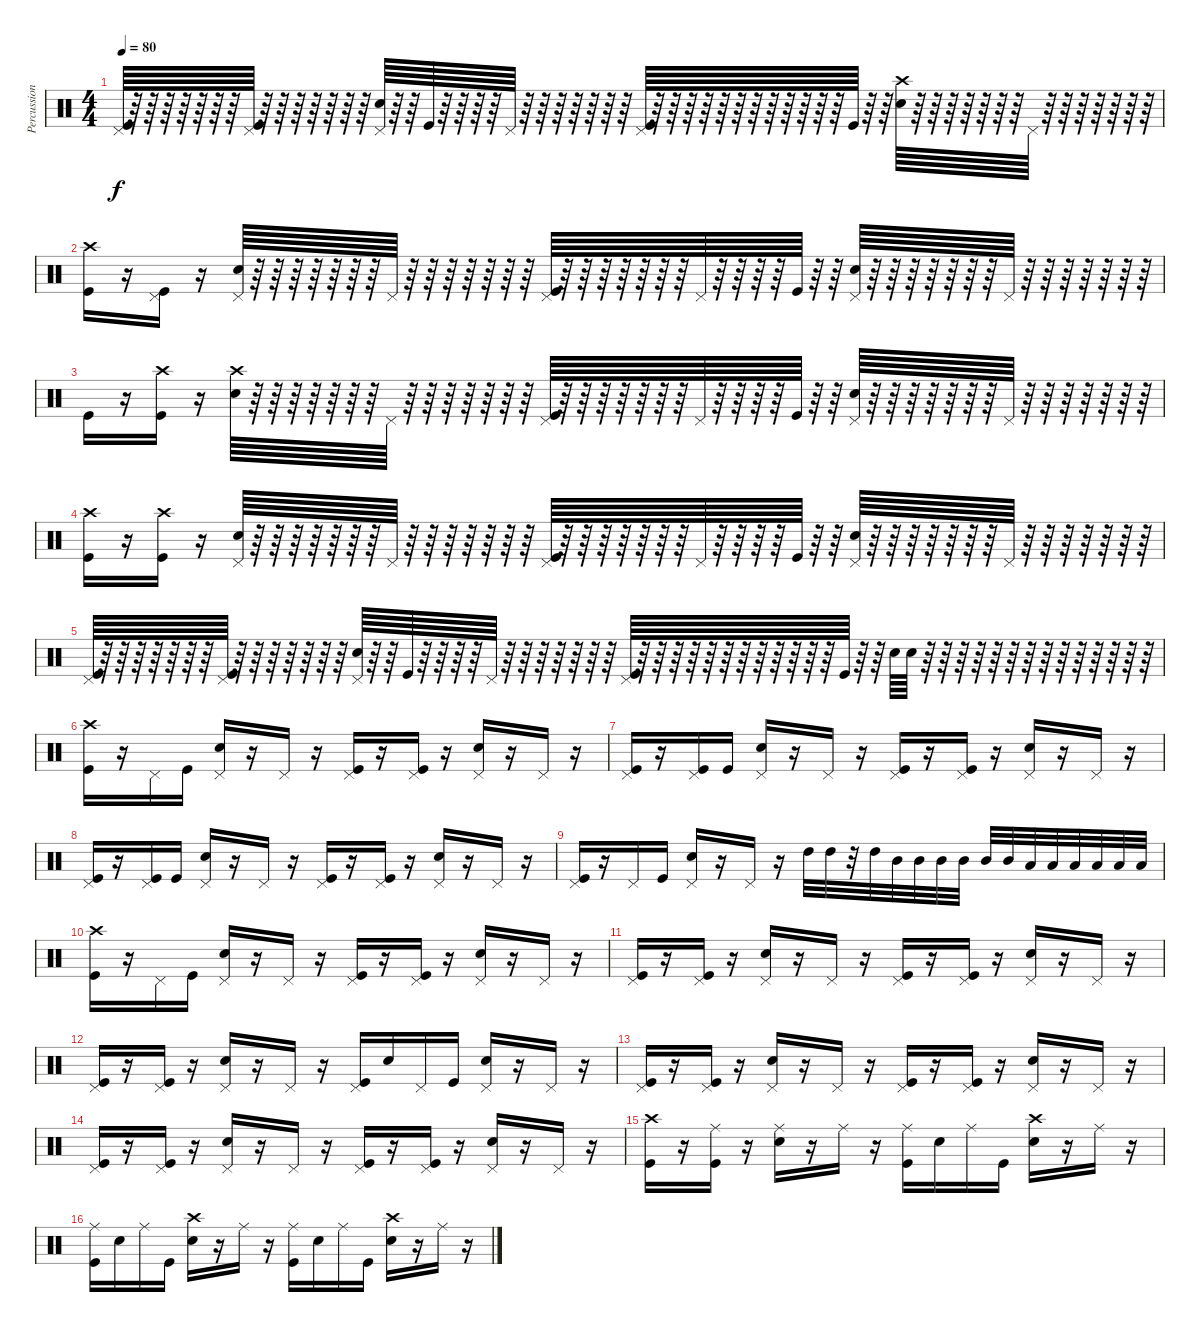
\track ("Percussion" "Percussion") {instrument percussion}
\staff {score}
\articulation defaults
\ts (4 4)
\tempo 80
\clef neutral
\ks c
("Pedal Hi-Hat (hit)" "Kick (hit)").64{dy f} r.64 r.64 r.64 r.64 r.64 r.64 r.64 ("Pedal Hi-Hat (hit)" "Kick (hit)").64 r.64 r.64 r.64 r.64 r.64 r.64 r.64 ("Snare (hit) 2" "Pedal Hi-Hat (hit)").64 r.64 r.64 "Kick (hit)".64 r.64 r.64 r.64 r.64 "Pedal Hi-Hat (hit)".64 r.64 r.64 r.64 r.64 r.64 r.64 r.64 ("Pedal Hi-Hat (hit)" "Kick (hit)").64 r.64 r.64 r.64 r.64 r.64 r.64 r.64 r.64 r.64 r.64 r.64 r.64 "Kick (hit)".64 r.64 r.64 ("Snare (hit) 2" "Crash high (hit)").64 r.64 r.64 r.64 r.64 r.64 r.64 r.64 "Pedal Hi-Hat (hit)".64 r.64 r.64 r.64 r.64 r.64 r.64 r.64 |
("Crash high (hit)" "Kick (hit)").16 r.16 ("Pedal Hi-Hat (hit)" "Kick (hit)").16 r.16 ("Snare (hit) 2" "Pedal Hi-Hat (hit)").64 r.64 r.64 r.64 r.64 r.64 r.64 r.64 "Pedal Hi-Hat (hit)".64 r.64 r.64 r.64 r.64 r.64 r.64 r.64 ("Pedal Hi-Hat (hit)" "Kick (hit)").64 r.64 r.64 r.64 r.64 r.64 r.64 r.64 "Pedal Hi-Hat (hit)".64 r.64 r.64 r.64 r.64 "Kick (hit)".64 r.64 r.64 ("Snare (hit) 2" "Pedal Hi-Hat (hit)").64 r.64 r.64 r.64 r.64 r.64 r.64 r.64 "Pedal Hi-Hat (hit)".64 r.64 r.64 r.64 r.64 r.64 r.64 r.64 |
"Kick (hit)".16 r.16 ("Crash high (hit)" "Kick (hit)").16 r.16 ("Snare (hit) 2" "Crash high (hit)").64 r.64 r.64 r.64 r.64 r.64 r.64 r.64 "Pedal Hi-Hat (hit)".64 r.64 r.64 r.64 r.64 r.64 r.64 r.64 ("Pedal Hi-Hat (hit)" "Kick (hit)").64 r.64 r.64 r.64 r.64 r.64 r.64 r.64 "Pedal Hi-Hat (hit)".64 r.64 r.64 r.64 r.64 "Kick (hit)".64 r.64 r.64 ("Snare (hit) 2" "Pedal Hi-Hat (hit)").64 r.64 r.64 r.64 r.64 r.64 r.64 r.64 "Pedal Hi-Hat (hit)".64 r.64 r.64 r.64 r.64 r.64 r.64 r.64 |
("Crash high (hit)" "Kick (hit)").16 r.16 ("Crash high (hit)" "Kick (hit)").16 r.16 ("Snare (hit) 2" "Pedal Hi-Hat (hit)").64 r.64 r.64 r.64 r.64 r.64 r.64 r.64 "Pedal Hi-Hat (hit)".64 r.64 r.64 r.64 r.64 r.64 r.64 r.64 ("Pedal Hi-Hat (hit)" "Kick (hit)").64 r.64 r.64 r.64 r.64 r.64 r.64 r.64 "Pedal Hi-Hat (hit)".64 r.64 r.64 r.64 r.64 "Kick (hit)".64 r.64 r.64 ("Snare (hit) 2" "Pedal Hi-Hat (hit)").64 r.64 r.64 r.64 r.64 r.64 r.64 r.64 "Pedal Hi-Hat (hit)".64 r.64 r.64 r.64 r.64 r.64 r.64 r.64 |
("Pedal Hi-Hat (hit)" "Kick (hit)").64 r.64 r.64 r.64 r.64 r.64 r.64 r.64 ("Pedal Hi-Hat (hit)" "Kick (hit)").64 r.64 r.64 r.64 r.64 r.64 r.64 r.64 ("Snare (hit) 2" "Pedal Hi-Hat (hit)").64 r.64 r.64 "Kick (hit)".64 r.64 r.64 r.64 r.64 "Pedal Hi-Hat (hit)".64 r.64 r.64 r.64 r.64 r.64 r.64 r.64 ("Pedal Hi-Hat (hit)" "Kick (hit)").64 r.64 r.64 r.64 r.64 r.64 r.64 r.64 r.64 r.64 r.64 r.64 r.64 "Kick (hit)".64 r.64 r.64 "Snare (hit) 2".64 "Snare (hit) 2".64 r.64 r.64 r.64 r.64 r.64 r.64 r.64 r.64 r.64 r.64 r.64 r.64 r.64 r.64 |
("Crash high (hit)" "Kick (hit)").16 r.16 "Pedal Hi-Hat (hit)".16 "Kick (hit)".16 ("Snare (hit) 2" "Pedal Hi-Hat (hit)").16 r.16 "Pedal Hi-Hat (hit)".16 r.16 ("Pedal Hi-Hat (hit)" "Kick (hit)").16 r.16 ("Pedal Hi-Hat (hit)" "Kick (hit)").16 r.16 ("Snare (hit) 2" "Pedal Hi-Hat (hit)").16 r.16 "Pedal Hi-Hat (hit)".16 r.16 |
("Pedal Hi-Hat (hit)" "Kick (hit)").16 r.16 ("Pedal Hi-Hat (hit)" "Kick (hit)").16 "Kick (hit)".16 ("Snare (hit) 2" "Pedal Hi-Hat (hit)").16 r.16 "Pedal Hi-Hat (hit)".16 r.16 ("Pedal Hi-Hat (hit)" "Kick (hit)").16 r.16 ("Pedal Hi-Hat (hit)" "Kick (hit)").16 r.16 ("Snare (hit) 2" "Pedal Hi-Hat (hit)").16 r.16 "Pedal Hi-Hat (hit)".16 r.16 |
("Pedal Hi-Hat (hit)" "Kick (hit)").16 r.16 ("Pedal Hi-Hat (hit)" "Kick (hit)").16 "Kick (hit)".16 ("Snare (hit) 2" "Pedal Hi-Hat (hit)").16 r.16 "Pedal Hi-Hat (hit)".16 r.16 ("Pedal Hi-Hat (hit)" "Kick (hit)").16 r.16 ("Pedal Hi-Hat (hit)" "Kick (hit)").16 r.16 ("Snare (hit) 2" "Pedal Hi-Hat (hit)").16 r.16 "Pedal Hi-Hat (hit)".16 r.16 |
("Pedal Hi-Hat (hit)" "Kick (hit)").16 r.16 "Pedal Hi-Hat (hit)".16 "Kick (hit)".16 ("Snare (hit) 2" "Pedal Hi-Hat (hit)").16 r.16 "Pedal Hi-Hat (hit)".16 r.16 "High Tom (hit)".32 "High Tom (hit)".32 r.32 "High Tom (hit)".32 "Mid Tom (hit)".32 "Mid Tom (hit)".32 "Mid Tom (hit)".32 "Mid Tom (hit)".32 "Mid Tom (hit)".32 "Mid Tom (hit)".32 "Low Tom (hit)".32 "Low Tom (hit)".32 "Low Tom (hit)".32 "Low Tom (hit)".32 "Low Tom (hit)".32 "Low Tom (hit)".32 |
("Crash high (hit)" "Kick (hit)").16 r.16 "Pedal Hi-Hat (hit)".16 "Kick (hit)".16 ("Snare (hit) 2" "Pedal Hi-Hat (hit)").16 r.16 "Pedal Hi-Hat (hit)".16 r.16 ("Pedal Hi-Hat (hit)" "Kick (hit)").16 r.16 ("Pedal Hi-Hat (hit)" "Kick (hit)").16 r.16 ("Snare (hit) 2" "Pedal Hi-Hat (hit)").16 r.16 "Pedal Hi-Hat (hit)".16 r.16 |
("Pedal Hi-Hat (hit)" "Kick (hit)").16 r.16 ("Pedal Hi-Hat (hit)" "Kick (hit)").16 r.16 ("Snare (hit) 2" "Pedal Hi-Hat (hit)").16 r.16 "Pedal Hi-Hat (hit)".16 r.16 ("Pedal Hi-Hat (hit)" "Kick (hit)").16 r.16 ("Pedal Hi-Hat (hit)" "Kick (hit)").16 r.16 ("Snare (hit) 2" "Pedal Hi-Hat (hit)").16 r.16 "Pedal Hi-Hat (hit)".16 r.16 |
("Pedal Hi-Hat (hit)" "Kick (hit)").16 r.16 ("Pedal Hi-Hat (hit)" "Kick (hit)").16 r.16 ("Snare (hit) 2" "Pedal Hi-Hat (hit)").16 r.16 "Pedal Hi-Hat (hit)".16 r.16 ("Pedal Hi-Hat (hit)" "Kick (hit)").16 "Snare (hit) 2".16 "Pedal Hi-Hat (hit)".16 "Kick (hit)".16 ("Snare (hit) 2" "Pedal Hi-Hat (hit)").16 r.16 "Pedal Hi-Hat (hit)".16 r.16 |
("Pedal Hi-Hat (hit)" "Kick (hit)").16 r.16 ("Pedal Hi-Hat (hit)" "Kick (hit)").16 r.16 ("Snare (hit) 2" "Pedal Hi-Hat (hit)").16 r.16 "Pedal Hi-Hat (hit)".16 r.16 ("Pedal Hi-Hat (hit)" "Kick (hit)").16 r.16 ("Pedal Hi-Hat (hit)" "Kick (hit)").16 r.16 ("Snare (hit) 2" "Pedal Hi-Hat (hit)").16 r.16 "Pedal Hi-Hat (hit)".16 r.16 |
("Pedal Hi-Hat (hit)" "Kick (hit)").16 r.16 ("Pedal Hi-Hat (hit)" "Kick (hit)").16 r.16 ("Snare (hit) 2" "Pedal Hi-Hat (hit)").16 r.16 "Pedal Hi-Hat (hit)".16 r.16 ("Pedal Hi-Hat (hit)" "Kick (hit)").16 r.16 ("Pedal Hi-Hat (hit)" "Kick (hit)").16 r.16 ("Snare (hit) 2" "Pedal Hi-Hat (hit)").16 r.16 "Pedal Hi-Hat (hit)".16 r.16 |
("Crash high (hit)" "Kick (hit)").16 r.16 ("Ride (middle)" "Kick (hit)").16 r.16 ("Snare (hit) 2" "Ride (middle)").16 r.16 "Ride (middle)".16 r.16 ("Ride (middle)" "Kick (hit)").16 "Snare (hit) 2".16 "Ride (middle)".16 "Kick (hit)".16 ("Snare (hit) 2" "Crash high (hit)").16 r.16 "Ride (middle)".16 r.16 |
("Ride (middle)" "Kick (hit)").16 "Snare (hit) 2".16 "Ride (middle)".16 "Kick (hit)".16 ("Snare (hit) 2" "Crash high (hit)").16 r.16 "Ride (middle)".16 r.16 ("Ride (middle)" "Kick (hit)").16 "Snare (hit) 2".16 "Ride (middle)".16 "Kick (hit)".16 ("Snare (hit) 2" "Crash high (hit)").16 r.16 "Ride (middle)".16 r.16
